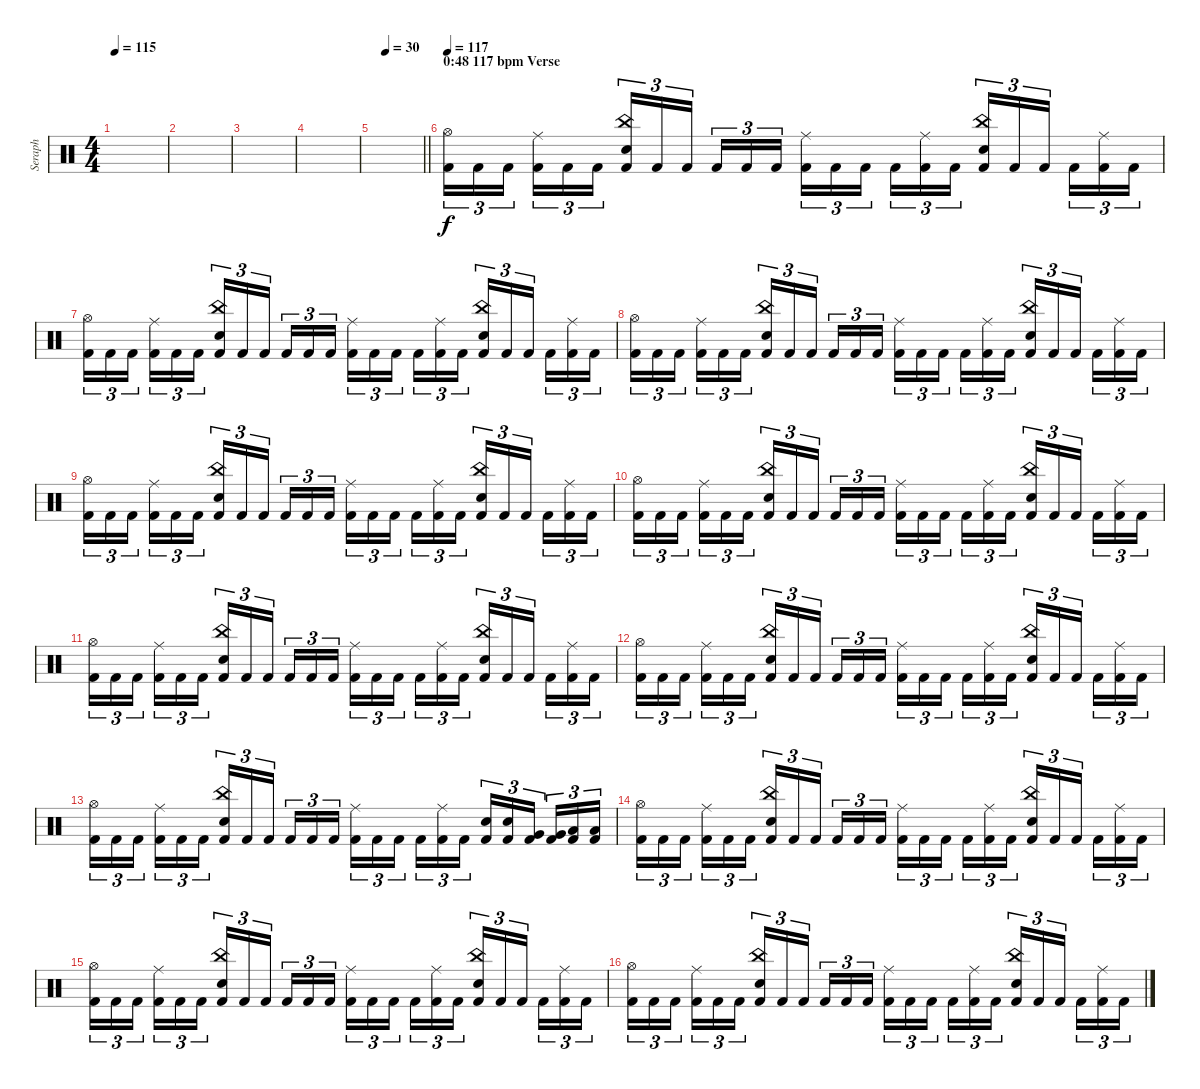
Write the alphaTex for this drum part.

\track ("Seraph" "Seraph") {instrument percussion}
\staff {score}
\articulation defaults
\ts (4 4)
\tempo 115
\clef neutral
\ks c
|
|
|
|
\tempo (30 0.25)
\barLineRight lightlight
|
\section ("" "0:48 117 bpm Verse")
\tempo 117
("Hi-Hat (open)" "Kick (hit) 2").16{tu (3 2)} "Kick (hit) 2".16{tu (3 2)} "Kick (hit) 2".16{tu (3 2) beam splitsecondary} ("Ride (middle)" "Kick (hit) 2").16{tu (3 2)} "Kick (hit) 2".16{tu (3 2)} "Kick (hit) 2".16{tu (3 2)} ("China (hit)" "Electric Snare (hit)" "Kick (hit) 2").16{tu (3 2)} "Kick (hit) 2".16{tu (3 2)} "Kick (hit) 2".16{tu (3 2) beam splitsecondary} "Kick (hit) 2".16{tu (3 2)} "Kick (hit) 2".16{tu (3 2)} "Kick (hit) 2".16{tu (3 2)} ("Ride (middle)" "Kick (hit) 2").16{tu (3 2)} "Kick (hit) 2".16{tu (3 2)} "Kick (hit) 2".16{tu (3 2) beam splitsecondary} "Kick (hit) 2".16{tu (3 2)} ("Ride (middle)" "Kick (hit) 2").16{tu (3 2)} "Kick (hit) 2".16{tu (3 2)} ("China (hit)" "Electric Snare (hit)" "Kick (hit) 2").16{tu (3 2)} "Kick (hit) 2".16{tu (3 2)} "Kick (hit) 2".16{tu (3 2) beam splitsecondary} "Kick (hit) 2".16{tu (3 2)} ("Ride (middle)" "Kick (hit) 2").16{tu (3 2)} "Kick (hit) 2".16{tu (3 2)} |
("Hi-Hat (open)" "Kick (hit) 2").16{tu (3 2)} "Kick (hit) 2".16{tu (3 2)} "Kick (hit) 2".16{tu (3 2) beam splitsecondary} ("Ride (middle)" "Kick (hit) 2").16{tu (3 2)} "Kick (hit) 2".16{tu (3 2)} "Kick (hit) 2".16{tu (3 2)} ("China (hit)" "Electric Snare (hit)" "Kick (hit) 2").16{tu (3 2)} "Kick (hit) 2".16{tu (3 2)} "Kick (hit) 2".16{tu (3 2) beam splitsecondary} "Kick (hit) 2".16{tu (3 2)} "Kick (hit) 2".16{tu (3 2)} "Kick (hit) 2".16{tu (3 2)} ("Ride (middle)" "Kick (hit) 2").16{tu (3 2)} "Kick (hit) 2".16{tu (3 2)} "Kick (hit) 2".16{tu (3 2) beam splitsecondary} "Kick (hit) 2".16{tu (3 2)} ("Ride (middle)" "Kick (hit) 2").16{tu (3 2)} "Kick (hit) 2".16{tu (3 2)} ("China (hit)" "Electric Snare (hit)" "Kick (hit) 2").16{tu (3 2)} "Kick (hit) 2".16{tu (3 2)} "Kick (hit) 2".16{tu (3 2) beam splitsecondary} "Kick (hit) 2".16{tu (3 2)} ("Ride (middle)" "Kick (hit) 2").16{tu (3 2)} "Kick (hit) 2".16{tu (3 2)} |
("Hi-Hat (open)" "Kick (hit) 2").16{tu (3 2)} "Kick (hit) 2".16{tu (3 2)} "Kick (hit) 2".16{tu (3 2) beam splitsecondary} ("Ride (middle)" "Kick (hit) 2").16{tu (3 2)} "Kick (hit) 2".16{tu (3 2)} "Kick (hit) 2".16{tu (3 2)} ("China (hit)" "Electric Snare (hit)" "Kick (hit) 2").16{tu (3 2)} "Kick (hit) 2".16{tu (3 2)} "Kick (hit) 2".16{tu (3 2) beam splitsecondary} "Kick (hit) 2".16{tu (3 2)} "Kick (hit) 2".16{tu (3 2)} "Kick (hit) 2".16{tu (3 2)} ("Ride (middle)" "Kick (hit) 2").16{tu (3 2)} "Kick (hit) 2".16{tu (3 2)} "Kick (hit) 2".16{tu (3 2) beam splitsecondary} "Kick (hit) 2".16{tu (3 2)} ("Ride (middle)" "Kick (hit) 2").16{tu (3 2)} "Kick (hit) 2".16{tu (3 2)} ("China (hit)" "Electric Snare (hit)" "Kick (hit) 2").16{tu (3 2)} "Kick (hit) 2".16{tu (3 2)} "Kick (hit) 2".16{tu (3 2) beam splitsecondary} "Kick (hit) 2".16{tu (3 2)} ("Ride (middle)" "Kick (hit) 2").16{tu (3 2)} "Kick (hit) 2".16{tu (3 2)} |
("Hi-Hat (open)" "Kick (hit) 2").16{tu (3 2)} "Kick (hit) 2".16{tu (3 2)} "Kick (hit) 2".16{tu (3 2) beam splitsecondary} ("Ride (middle)" "Kick (hit) 2").16{tu (3 2)} "Kick (hit) 2".16{tu (3 2)} "Kick (hit) 2".16{tu (3 2)} ("China (hit)" "Electric Snare (hit)" "Kick (hit) 2").16{tu (3 2)} "Kick (hit) 2".16{tu (3 2)} "Kick (hit) 2".16{tu (3 2) beam splitsecondary} "Kick (hit) 2".16{tu (3 2)} "Kick (hit) 2".16{tu (3 2)} "Kick (hit) 2".16{tu (3 2)} ("Ride (middle)" "Kick (hit) 2").16{tu (3 2)} "Kick (hit) 2".16{tu (3 2)} "Kick (hit) 2".16{tu (3 2) beam splitsecondary} "Kick (hit) 2".16{tu (3 2)} ("Ride (middle)" "Kick (hit) 2").16{tu (3 2)} "Kick (hit) 2".16{tu (3 2)} ("China (hit)" "Electric Snare (hit)" "Kick (hit) 2").16{tu (3 2)} "Kick (hit) 2".16{tu (3 2)} "Kick (hit) 2".16{tu (3 2) beam splitsecondary} "Kick (hit) 2".16{tu (3 2)} ("Ride (middle)" "Kick (hit) 2").16{tu (3 2)} "Kick (hit) 2".16{tu (3 2)} |
("Hi-Hat (open)" "Kick (hit) 2").16{tu (3 2)} "Kick (hit) 2".16{tu (3 2)} "Kick (hit) 2".16{tu (3 2) beam splitsecondary} ("Ride (middle)" "Kick (hit) 2").16{tu (3 2)} "Kick (hit) 2".16{tu (3 2)} "Kick (hit) 2".16{tu (3 2)} ("China (hit)" "Electric Snare (hit)" "Kick (hit) 2").16{tu (3 2)} "Kick (hit) 2".16{tu (3 2)} "Kick (hit) 2".16{tu (3 2) beam splitsecondary} "Kick (hit) 2".16{tu (3 2)} "Kick (hit) 2".16{tu (3 2)} "Kick (hit) 2".16{tu (3 2)} ("Ride (middle)" "Kick (hit) 2").16{tu (3 2)} "Kick (hit) 2".16{tu (3 2)} "Kick (hit) 2".16{tu (3 2) beam splitsecondary} "Kick (hit) 2".16{tu (3 2)} ("Ride (middle)" "Kick (hit) 2").16{tu (3 2)} "Kick (hit) 2".16{tu (3 2)} ("China (hit)" "Electric Snare (hit)" "Kick (hit) 2").16{tu (3 2)} "Kick (hit) 2".16{tu (3 2)} "Kick (hit) 2".16{tu (3 2) beam splitsecondary} "Kick (hit) 2".16{tu (3 2)} ("Ride (middle)" "Kick (hit) 2").16{tu (3 2)} "Kick (hit) 2".16{tu (3 2)} |
("Hi-Hat (open)" "Kick (hit) 2").16{tu (3 2)} "Kick (hit) 2".16{tu (3 2)} "Kick (hit) 2".16{tu (3 2) beam splitsecondary} ("Ride (middle)" "Kick (hit) 2").16{tu (3 2)} "Kick (hit) 2".16{tu (3 2)} "Kick (hit) 2".16{tu (3 2)} ("China (hit)" "Electric Snare (hit)" "Kick (hit) 2").16{tu (3 2)} "Kick (hit) 2".16{tu (3 2)} "Kick (hit) 2".16{tu (3 2) beam splitsecondary} "Kick (hit) 2".16{tu (3 2)} "Kick (hit) 2".16{tu (3 2)} "Kick (hit) 2".16{tu (3 2)} ("Ride (middle)" "Kick (hit) 2").16{tu (3 2)} "Kick (hit) 2".16{tu (3 2)} "Kick (hit) 2".16{tu (3 2) beam splitsecondary} "Kick (hit) 2".16{tu (3 2)} ("Ride (middle)" "Kick (hit) 2").16{tu (3 2)} "Kick (hit) 2".16{tu (3 2)} ("China (hit)" "Electric Snare (hit)" "Kick (hit) 2").16{tu (3 2)} "Kick (hit) 2".16{tu (3 2)} "Kick (hit) 2".16{tu (3 2) beam splitsecondary} "Kick (hit) 2".16{tu (3 2)} ("Ride (middle)" "Kick (hit) 2").16{tu (3 2)} "Kick (hit) 2".16{tu (3 2)} |
("Hi-Hat (open)" "Kick (hit) 2").16{tu (3 2)} "Kick (hit) 2".16{tu (3 2)} "Kick (hit) 2".16{tu (3 2) beam splitsecondary} ("Ride (middle)" "Kick (hit) 2").16{tu (3 2)} "Kick (hit) 2".16{tu (3 2)} "Kick (hit) 2".16{tu (3 2)} ("China (hit)" "Electric Snare (hit)" "Kick (hit) 2").16{tu (3 2)} "Kick (hit) 2".16{tu (3 2)} "Kick (hit) 2".16{tu (3 2) beam splitsecondary} "Kick (hit) 2".16{tu (3 2)} "Kick (hit) 2".16{tu (3 2)} "Kick (hit) 2".16{tu (3 2)} ("Ride (middle)" "Kick (hit) 2").16{tu (3 2)} "Kick (hit) 2".16{tu (3 2)} "Kick (hit) 2".16{tu (3 2) beam splitsecondary} "Kick (hit) 2".16{tu (3 2)} ("Ride (middle)" "Kick (hit) 2").16{tu (3 2)} "Kick (hit) 2".16{tu (3 2)} ("China (hit)" "Electric Snare (hit)" "Kick (hit) 2").16{tu (3 2)} "Kick (hit) 2".16{tu (3 2)} "Kick (hit) 2".16{tu (3 2) beam splitsecondary} "Kick (hit) 2".16{tu (3 2)} ("Ride (middle)" "Kick (hit) 2").16{tu (3 2)} "Kick (hit) 2".16{tu (3 2)} |
("Hi-Hat (open)" "Kick (hit) 2").16{tu (3 2)} "Kick (hit) 2".16{tu (3 2)} "Kick (hit) 2".16{tu (3 2) beam splitsecondary} ("Ride (middle)" "Kick (hit) 2").16{tu (3 2)} "Kick (hit) 2".16{tu (3 2)} "Kick (hit) 2".16{tu (3 2)} ("China (hit)" "Electric Snare (hit)" "Kick (hit) 2").16{tu (3 2)} "Kick (hit) 2".16{tu (3 2)} "Kick (hit) 2".16{tu (3 2) beam splitsecondary} "Kick (hit) 2".16{tu (3 2)} "Kick (hit) 2".16{tu (3 2)} "Kick (hit) 2".16{tu (3 2)} ("Ride (middle)" "Kick (hit) 2").16{tu (3 2)} "Kick (hit) 2".16{tu (3 2)} "Kick (hit) 2".16{tu (3 2) beam splitsecondary} "Kick (hit) 2".16{tu (3 2)} ("Ride (middle)" "Kick (hit) 2").16{tu (3 2)} "Kick (hit) 2".16{tu (3 2)} ("Electric Snare (hit)" "Kick (hit) 2").16{tu (3 2)} ("Electric Snare (hit)" "Kick (hit) 2").16{tu (3 2)} ("Very Low Tom (hit)" "Kick (hit) 2").16{tu (3 2) beam splitsecondary} ("Very Low Tom (hit)" "Kick (hit) 2").16{tu (3 2)} ("Low Floor Tom (hit)" "Kick (hit) 2").16{tu (3 2)} ("Low Floor Tom (hit)" "Kick (hit) 2").16{tu (3 2)} |
("Hi-Hat (open)" "Kick (hit) 2").16{tu (3 2)} "Kick (hit) 2".16{tu (3 2)} "Kick (hit) 2".16{tu (3 2) beam splitsecondary} ("Ride (middle)" "Kick (hit) 2").16{tu (3 2)} "Kick (hit) 2".16{tu (3 2)} "Kick (hit) 2".16{tu (3 2)} ("China (hit)" "Electric Snare (hit)" "Kick (hit) 2").16{tu (3 2)} "Kick (hit) 2".16{tu (3 2)} "Kick (hit) 2".16{tu (3 2) beam splitsecondary} "Kick (hit) 2".16{tu (3 2)} "Kick (hit) 2".16{tu (3 2)} "Kick (hit) 2".16{tu (3 2)} ("Ride (middle)" "Kick (hit) 2").16{tu (3 2)} "Kick (hit) 2".16{tu (3 2)} "Kick (hit) 2".16{tu (3 2) beam splitsecondary} "Kick (hit) 2".16{tu (3 2)} ("Ride (middle)" "Kick (hit) 2").16{tu (3 2)} "Kick (hit) 2".16{tu (3 2)} ("China (hit)" "Electric Snare (hit)" "Kick (hit) 2").16{tu (3 2)} "Kick (hit) 2".16{tu (3 2)} "Kick (hit) 2".16{tu (3 2) beam splitsecondary} "Kick (hit) 2".16{tu (3 2)} ("Ride (middle)" "Kick (hit) 2").16{tu (3 2)} "Kick (hit) 2".16{tu (3 2)} |
("Hi-Hat (open)" "Kick (hit) 2").16{tu (3 2)} "Kick (hit) 2".16{tu (3 2)} "Kick (hit) 2".16{tu (3 2) beam splitsecondary} ("Ride (middle)" "Kick (hit) 2").16{tu (3 2)} "Kick (hit) 2".16{tu (3 2)} "Kick (hit) 2".16{tu (3 2)} ("China (hit)" "Electric Snare (hit)" "Kick (hit) 2").16{tu (3 2)} "Kick (hit) 2".16{tu (3 2)} "Kick (hit) 2".16{tu (3 2) beam splitsecondary} "Kick (hit) 2".16{tu (3 2)} "Kick (hit) 2".16{tu (3 2)} "Kick (hit) 2".16{tu (3 2)} ("Ride (middle)" "Kick (hit) 2").16{tu (3 2)} "Kick (hit) 2".16{tu (3 2)} "Kick (hit) 2".16{tu (3 2) beam splitsecondary} "Kick (hit) 2".16{tu (3 2)} ("Ride (middle)" "Kick (hit) 2").16{tu (3 2)} "Kick (hit) 2".16{tu (3 2)} ("China (hit)" "Electric Snare (hit)" "Kick (hit) 2").16{tu (3 2)} "Kick (hit) 2".16{tu (3 2)} "Kick (hit) 2".16{tu (3 2) beam splitsecondary} "Kick (hit) 2".16{tu (3 2)} ("Ride (middle)" "Kick (hit) 2").16{tu (3 2)} "Kick (hit) 2".16{tu (3 2)} |
("Hi-Hat (open)" "Kick (hit) 2").16{tu (3 2)} "Kick (hit) 2".16{tu (3 2)} "Kick (hit) 2".16{tu (3 2) beam splitsecondary} ("Ride (middle)" "Kick (hit) 2").16{tu (3 2)} "Kick (hit) 2".16{tu (3 2)} "Kick (hit) 2".16{tu (3 2)} ("China (hit)" "Electric Snare (hit)" "Kick (hit) 2").16{tu (3 2)} "Kick (hit) 2".16{tu (3 2)} "Kick (hit) 2".16{tu (3 2) beam splitsecondary} "Kick (hit) 2".16{tu (3 2)} "Kick (hit) 2".16{tu (3 2)} "Kick (hit) 2".16{tu (3 2)} ("Ride (middle)" "Kick (hit) 2").16{tu (3 2)} "Kick (hit) 2".16{tu (3 2)} "Kick (hit) 2".16{tu (3 2) beam splitsecondary} "Kick (hit) 2".16{tu (3 2)} ("Ride (middle)" "Kick (hit) 2").16{tu (3 2)} "Kick (hit) 2".16{tu (3 2)} ("China (hit)" "Electric Snare (hit)" "Kick (hit) 2").16{tu (3 2)} "Kick (hit) 2".16{tu (3 2)} "Kick (hit) 2".16{tu (3 2) beam splitsecondary} "Kick (hit) 2".16{tu (3 2)} ("Ride (middle)" "Kick (hit) 2").16{tu (3 2)} "Kick (hit) 2".16{tu (3 2)}
